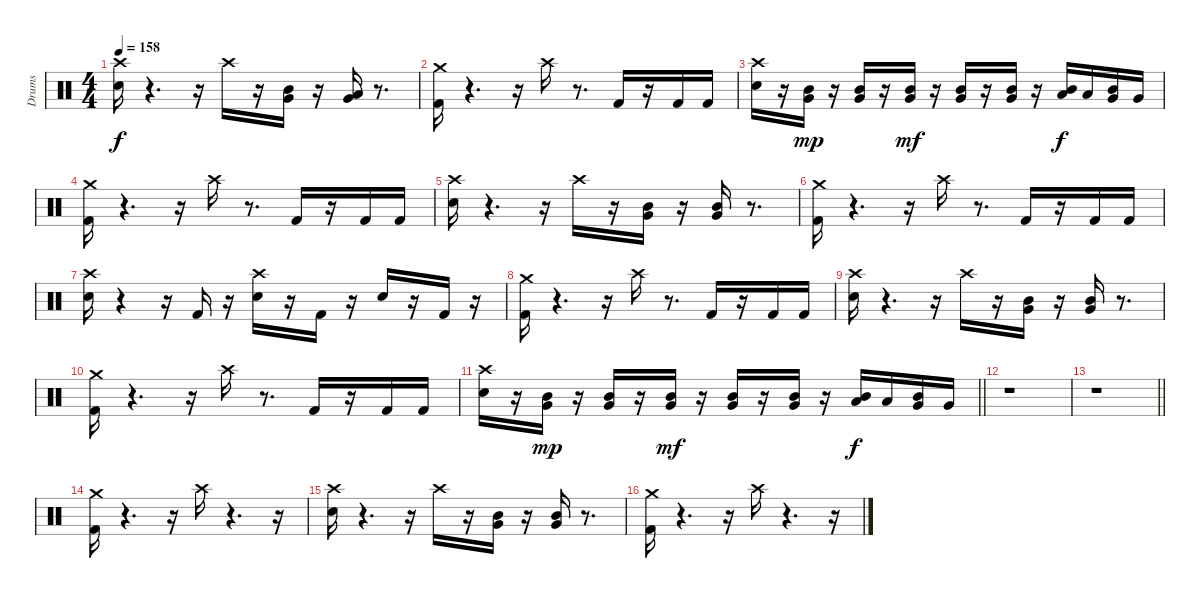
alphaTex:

\track ("Drums" "Drums") {instrument percussion}
\staff {score}
\articulation defaults
\ts (4 4)
\tempo 158
\clef neutral
\ks c
("Snare (hit) 2" "Crash high (hit)").16{dy f} r.4{d} r.16 "Crash high (hit)".16 r.16 ("Very Low Tom (hit)" "Mid Tom (hit)").16 r.16 ("Very Low Tom (hit)" "Low Tom (hit)").16 r.8{d} |
("Kick (hit) 2" "Crash medium (hit)").16 r.4{d} r.16 "Crash high (hit)".16 r.8{d} "Kick (hit) 2".16 r.16 "Kick (hit) 2".16 "Kick (hit) 2".16 |
("Snare (hit) 2" "Crash high (hit)").16 r.16 ("Very Low Tom (hit)" "Mid Tom (hit)").16{dy mp} r.16 ("Very Low Tom (hit)" "Mid Tom (hit)").16 r.16 ("Very Low Tom (hit)" "Mid Tom (hit)").16{dy mf} r.16 ("Very Low Tom (hit)" "Mid Tom (hit)").16 r.16 ("Very Low Tom (hit)" "Mid Tom (hit)").16 r.16 ("Low Tom (hit)" "Mid Tom (hit)").16{dy f} "Low Tom (hit)".16 ("Very Low Tom (hit)" "Mid Tom (hit)").16 "Very Low Tom (hit)".16 |
("Kick (hit) 2" "Crash medium (hit)").16 r.4{d} r.16 "Crash high (hit)".16 r.8{d} "Kick (hit) 2".16 r.16 "Kick (hit) 2".16 "Kick (hit) 2".16 |
("Snare (hit) 2" "Crash high (hit)").16 r.4{d} r.16 "Crash high (hit)".16 r.16 ("Very Low Tom (hit)" "Mid Tom (hit)").16 r.16 ("Very Low Tom (hit)" "Mid Tom (hit)").16 r.8{d} |
("Kick (hit) 2" "Crash medium (hit)").16 r.4{d} r.16 "Crash high (hit)".16 r.8{d} "Kick (hit) 2".16 r.16 "Kick (hit) 2".16 "Kick (hit) 2".16 |
("Snare (hit) 2" "Crash high (hit)").16 r.4 r.16 "Kick (hit) 2".16 r.16 ("Snare (hit) 2" "Crash high (hit)").16 r.16 "Kick (hit) 2".16 r.16 "Snare (hit) 2".16 r.16 "Kick (hit) 2".16 r.16 |
("Kick (hit) 2" "Crash medium (hit)").16 r.4{d} r.16 "Crash high (hit)".16 r.8{d} "Kick (hit) 2".16 r.16 "Kick (hit) 2".16 "Kick (hit) 2".16 |
("Snare (hit) 2" "Crash high (hit)").16 r.4{d} r.16 "Crash high (hit)".16 r.16 ("Very Low Tom (hit)" "Mid Tom (hit)").16 r.16 ("Very Low Tom (hit)" "Mid Tom (hit)").16 r.8{d} |
("Kick (hit) 2" "Crash medium (hit)").16 r.4{d} r.16 "Crash high (hit)".16 r.8{d} "Kick (hit) 2".16 r.16 "Kick (hit) 2".16 "Kick (hit) 2".16 |
\barLineRight lightlight
("Snare (hit) 2" "Crash high (hit)").16 r.16 ("Very Low Tom (hit)" "Mid Tom (hit)").16{dy mp} r.16 ("Very Low Tom (hit)" "Mid Tom (hit)").16 r.16 ("Very Low Tom (hit)" "Mid Tom (hit)").16{dy mf} r.16 ("Very Low Tom (hit)" "Mid Tom (hit)").16 r.16 ("Very Low Tom (hit)" "Mid Tom (hit)").16 r.16 ("Low Tom (hit)" "Mid Tom (hit)").16{dy f} "Low Tom (hit)".16 ("Very Low Tom (hit)" "Mid Tom (hit)").16 "Very Low Tom (hit)".16 |
\section ("" " ")
r.1 |
\barLineRight lightlight
r.1 |
\section ("" " ")
("Kick (hit) 2" "Crash medium (hit)").16 r.4{d} r.16 "Crash high (hit)".16 r.4{d} r.16 |
("Snare (hit) 2" "Crash high (hit)").16 r.4{d} r.16 "Crash high (hit)".16 r.16 ("Very Low Tom (hit)" "Mid Tom (hit)").16 r.16 ("Very Low Tom (hit)" "Mid Tom (hit)").16 r.8{d} |
("Kick (hit) 2" "Crash medium (hit)").16 r.4{d} r.16 "Crash high (hit)".16 r.4{d} r.16
